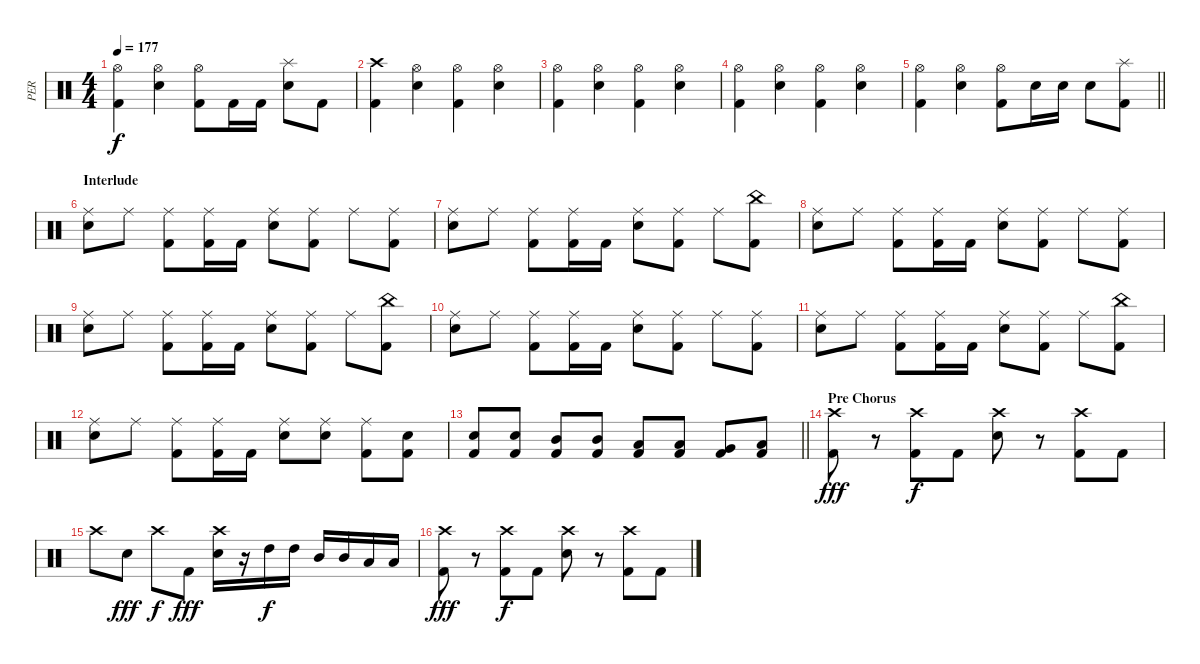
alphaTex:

\track ("PER" "PER") {instrument percussion}
\staff {score}
\articulation defaults
\ts (4 4)
\tempo 177
\clef neutral
\ks c
("Hi-Hat (open)" "Kick (hit) 2").4{dy f} ("Hi-Hat (open)" "Electric Snare (hit)").4 ("Hi-Hat (open)" "Kick (hit) 2").8 "Kick (hit) 2".16 "Kick (hit) 2".16 ("Splash (hit)" "Electric Snare (hit)").8 "Kick (hit) 2".8 |
("Crash high (hit)" "Kick (hit) 2").4 ("Hi-Hat (open)" "Electric Snare (hit)").4 ("Hi-Hat (open)" "Kick (hit) 2").4 ("Hi-Hat (open)" "Electric Snare (hit)").4 |
("Hi-Hat (open)" "Kick (hit) 2").4 ("Hi-Hat (open)" "Electric Snare (hit)").4 ("Hi-Hat (open)" "Kick (hit) 2").4 ("Hi-Hat (open)" "Electric Snare (hit)").4 |
("Hi-Hat (open)" "Kick (hit) 2").4 ("Hi-Hat (open)" "Electric Snare (hit)").4 ("Hi-Hat (open)" "Kick (hit) 2").4 ("Hi-Hat (open)" "Electric Snare (hit)").4 |
\barLineRight lightlight
("Hi-Hat (open)" "Kick (hit) 2").4 ("Hi-Hat (open)" "Electric Snare (hit)").4 ("Hi-Hat (open)" "Kick (hit) 2").8 "Electric Snare (hit)".16 "Electric Snare (hit)".16 "Electric Snare (hit)".8 ("Splash (hit)" "Kick (hit) 2").8 |
\section ("" "Interlude")
("Ride (middle)" "Electric Snare (hit)").8 "Ride (middle)".8 ("Ride (middle)" "Kick (hit) 2").8 ("Ride (middle)" "Kick (hit) 2").16 "Kick (hit) 2".16 ("Ride (middle)" "Electric Snare (hit)").8 ("Ride (middle)" "Kick (hit) 2").8 "Ride (middle)".8 ("Ride (middle)" "Kick (hit) 2").8 |
("Ride (middle)" "Electric Snare (hit)").8 "Ride (middle)".8 ("Ride (middle)" "Kick (hit) 2").8 ("Ride (middle)" "Kick (hit) 2").16 "Kick (hit) 2".16 ("Ride (middle)" "Electric Snare (hit)").8 ("Ride (middle)" "Kick (hit) 2").8 "Ride (middle)".8 ("China (hit)" "Kick (hit) 2").8 |
("Ride (middle)" "Electric Snare (hit)").8 "Ride (middle)".8 ("Ride (middle)" "Kick (hit) 2").8 ("Ride (middle)" "Kick (hit) 2").16 "Kick (hit) 2".16 ("Ride (middle)" "Electric Snare (hit)").8 ("Ride (middle)" "Kick (hit) 2").8 "Ride (middle)".8 ("Ride (middle)" "Kick (hit) 2").8 |
("Ride (middle)" "Electric Snare (hit)").8 "Ride (middle)".8 ("Ride (middle)" "Kick (hit) 2").8 ("Ride (middle)" "Kick (hit) 2").16 "Kick (hit) 2".16 ("Ride (middle)" "Electric Snare (hit)").8 ("Ride (middle)" "Kick (hit) 2").8 "Ride (middle)".8 ("China (hit)" "Kick (hit) 2").8 |
("Ride (middle)" "Electric Snare (hit)").8 "Ride (middle)".8 ("Ride (middle)" "Kick (hit) 2").8 ("Ride (middle)" "Kick (hit) 2").16 "Kick (hit) 2".16 ("Ride (middle)" "Electric Snare (hit)").8 ("Ride (middle)" "Kick (hit) 2").8 "Ride (middle)".8 ("Ride (middle)" "Kick (hit) 2").8 |
("Ride (middle)" "Electric Snare (hit)").8 "Ride (middle)".8 ("Ride (middle)" "Kick (hit) 2").8 ("Ride (middle)" "Kick (hit) 2").16 "Kick (hit) 2".16 ("Ride (middle)" "Electric Snare (hit)").8 ("Ride (middle)" "Kick (hit) 2").8 "Ride (middle)".8 ("China (hit)" "Kick (hit) 2").8 |
("Ride (middle)" "Electric Snare (hit)").8 "Ride (middle)".8 ("Ride (middle)" "Kick (hit) 2").8 ("Ride (middle)" "Kick (hit) 2").16 "Kick (hit) 2".16 ("Ride (middle)" "Electric Snare (hit)").8 ("Ride (middle)" "Electric Snare (hit)").8 ("Ride (middle)" "Kick (hit) 2").8 ("Electric Snare (hit)" "Kick (hit) 2").8 |
\barLineRight lightlight
("Electric Snare (hit)" "Kick (hit) 2").8 ("Electric Snare (hit)" "Kick (hit) 2").8 ("Mid Tom (hit)" "Kick (hit) 2").8 ("Mid Tom (hit)" "Kick (hit) 2").8 ("Low Tom (hit)" "Kick (hit) 2").8 ("Low Tom (hit)" "Kick (hit) 2").8 ("Very Low Tom (hit)" "Kick (hit) 2").8 ("Low Floor Tom (hit)" "Kick (hit) 2").8 |
\section ("" "Pre Chorus")
("Crash high (hit)" "Kick (hit) 2").8{dy fff} r.8 ("Crash high (hit)" "Kick (hit) 2").8{dy f} "Kick (hit) 2".8 ("Crash high (hit)" "Electric Snare (hit)").8 r.8 ("Crash high (hit)" "Kick (hit) 2").8 "Kick (hit) 2".8 |
"Crash high (hit)".8 "Electric Snare (hit)".8{dy fff} "Crash high (hit)".8{dy f} "Kick (hit) 2".8{dy fff} ("Crash high (hit)" "Electric Snare (hit)").16 r.16 "High Tom (hit)".16{dy f} "High Tom (hit)".16 "Mid Tom (hit)".16 "Mid Tom (hit)".16 "Low Tom (hit)".16 "Low Tom (hit)".16 |
("Crash high (hit)" "Kick (hit) 2").8{dy fff} r.8 ("Crash high (hit)" "Kick (hit) 2").8{dy f} "Kick (hit) 2".8 ("Crash high (hit)" "Electric Snare (hit)").8 r.8 ("Crash high (hit)" "Kick (hit) 2").8 "Kick (hit) 2".8
